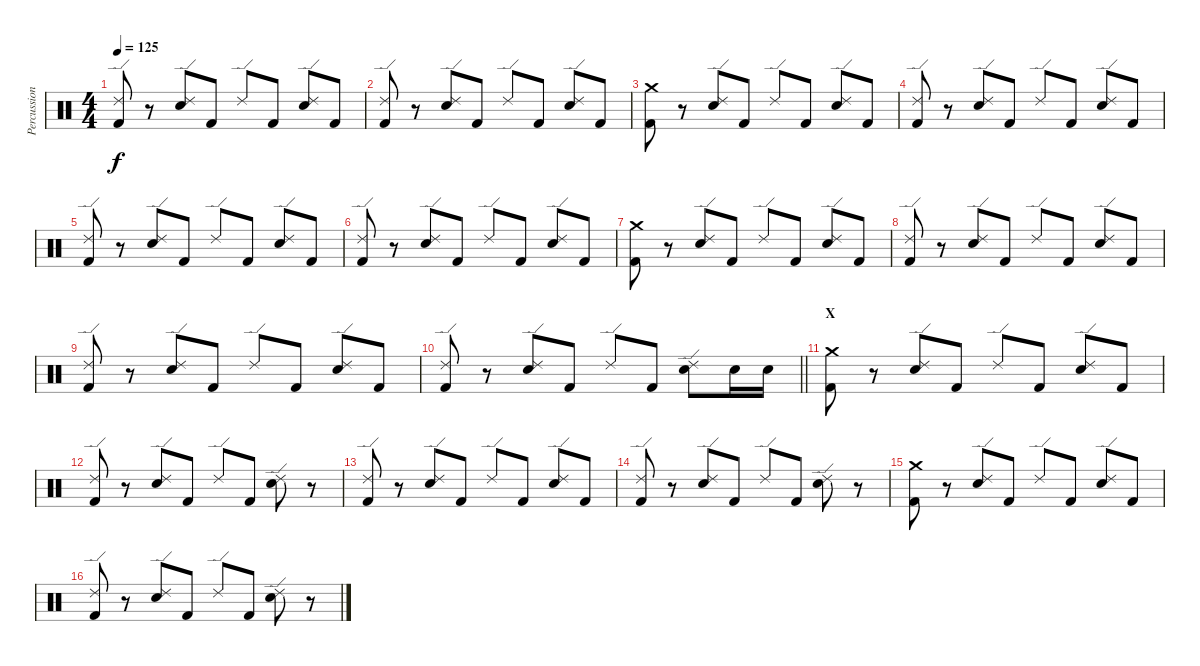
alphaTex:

\track ("Percussion" "Percussion") {instrument percussion}
\staff {score}
\articulation defaults
\ts (4 4)
\tempo 125
\clef neutral
\ks c
("Ride (edge) 2" "Kick (hit) 2").8{dy f} r.8 ("Ride (edge) 2" "Electric Snare (hit)").8 "Kick (hit) 2".8 "Ride (edge) 2".8 "Kick (hit) 2".8 ("Ride (edge) 2" "Electric Snare (hit)").8 "Kick (hit) 2".8 |
("Ride (edge) 2" "Kick (hit) 2").8 r.8 ("Ride (edge) 2" "Electric Snare (hit)").8 "Kick (hit) 2".8 "Ride (edge) 2".8 "Kick (hit) 2".8 ("Ride (edge) 2" "Electric Snare (hit)").8 "Kick (hit) 2".8 |
("Crash medium (hit)" "Kick (hit) 2").8 r.8 ("Ride (edge) 2" "Electric Snare (hit)").8 "Kick (hit) 2".8 "Ride (edge) 2".8 "Kick (hit) 2".8 ("Ride (edge) 2" "Electric Snare (hit)").8 "Kick (hit) 2".8 |
("Ride (edge) 2" "Kick (hit) 2").8 r.8 ("Ride (edge) 2" "Electric Snare (hit)").8 "Kick (hit) 2".8 "Ride (edge) 2".8 "Kick (hit) 2".8 ("Ride (edge) 2" "Electric Snare (hit)").8 "Kick (hit) 2".8 |
("Ride (edge) 2" "Kick (hit) 2").8 r.8 ("Ride (edge) 2" "Electric Snare (hit)").8 "Kick (hit) 2".8 "Ride (edge) 2".8 "Kick (hit) 2".8 ("Ride (edge) 2" "Electric Snare (hit)").8 "Kick (hit) 2".8 |
("Ride (edge) 2" "Kick (hit) 2").8 r.8 ("Ride (edge) 2" "Electric Snare (hit)").8 "Kick (hit) 2".8 "Ride (edge) 2".8 "Kick (hit) 2".8 ("Ride (edge) 2" "Electric Snare (hit)").8 "Kick (hit) 2".8 |
("Crash medium (hit)" "Kick (hit) 2").8 r.8 ("Ride (edge) 2" "Electric Snare (hit)").8 "Kick (hit) 2".8 "Ride (edge) 2".8 "Kick (hit) 2".8 ("Ride (edge) 2" "Electric Snare (hit)").8 "Kick (hit) 2".8 |
("Ride (edge) 2" "Kick (hit) 2").8 r.8 ("Ride (edge) 2" "Electric Snare (hit)").8 "Kick (hit) 2".8 "Ride (edge) 2".8 "Kick (hit) 2".8 ("Ride (edge) 2" "Electric Snare (hit)").8 "Kick (hit) 2".8 |
("Ride (edge) 2" "Kick (hit) 2").8 r.8 ("Ride (edge) 2" "Electric Snare (hit)").8 "Kick (hit) 2".8 "Ride (edge) 2".8 "Kick (hit) 2".8 ("Ride (edge) 2" "Electric Snare (hit)").8 "Kick (hit) 2".8 |
\barLineRight lightlight
("Ride (edge) 2" "Kick (hit) 2").8 r.8 ("Ride (edge) 2" "Electric Snare (hit)").8 "Kick (hit) 2".8 "Ride (edge) 2".8 "Kick (hit) 2".8 ("Ride (edge) 2" "Electric Snare (hit)").8 "Electric Snare (hit)".16 "Electric Snare (hit)".16 |
\section ("" "X")
("Crash medium (hit)" "Kick (hit) 2").8 r.8 ("Ride (edge) 2" "Electric Snare (hit)").8 "Kick (hit) 2".8 "Ride (edge) 2".8 "Kick (hit) 2".8 ("Ride (edge) 2" "Electric Snare (hit)").8 "Kick (hit) 2".8 |
("Ride (edge) 2" "Kick (hit) 2").8 r.8 ("Ride (edge) 2" "Electric Snare (hit)").8 "Kick (hit) 2".8 "Ride (edge) 2".8 "Kick (hit) 2".8 ("Ride (edge) 2" "Electric Snare (hit)").8 r.8 |
("Ride (edge) 2" "Kick (hit) 2").8 r.8 ("Ride (edge) 2" "Electric Snare (hit)").8 "Kick (hit) 2".8 "Ride (edge) 2".8 "Kick (hit) 2".8 ("Ride (edge) 2" "Electric Snare (hit)").8 "Kick (hit) 2".8 |
("Ride (edge) 2" "Kick (hit) 2").8 r.8 ("Ride (edge) 2" "Electric Snare (hit)").8 "Kick (hit) 2".8 "Ride (edge) 2".8 "Kick (hit) 2".8 ("Ride (edge) 2" "Electric Snare (hit)").8 r.8 |
("Crash medium (hit)" "Kick (hit) 2").8 r.8 ("Ride (edge) 2" "Electric Snare (hit)").8 "Kick (hit) 2".8 "Ride (edge) 2".8 "Kick (hit) 2".8 ("Ride (edge) 2" "Electric Snare (hit)").8 "Kick (hit) 2".8 |
("Ride (edge) 2" "Kick (hit) 2").8 r.8 ("Ride (edge) 2" "Electric Snare (hit)").8 "Kick (hit) 2".8 "Ride (edge) 2".8 "Kick (hit) 2".8 ("Ride (edge) 2" "Electric Snare (hit)").8 r.8
